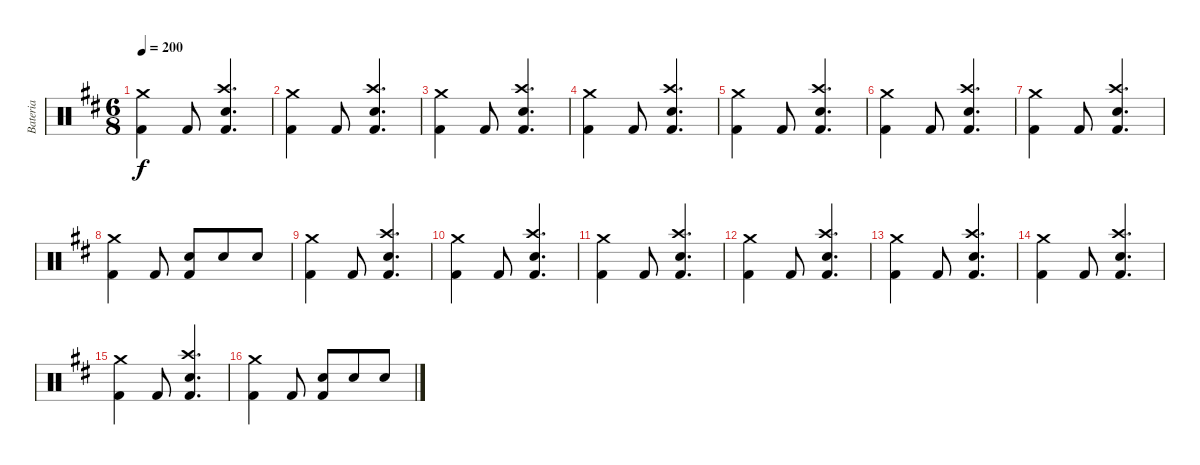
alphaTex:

\track ("Bateria" "Bateria") {instrument percussion}
\staff {score}
\articulation defaults
\ts (6 8)
\tempo 200
\clef neutral
\ks bminor
("Crash medium (hit)" "Kick (hit) 2").4{dy f} "Kick (hit) 2".8 ("Crash high (hit)" "Electric Snare (hit)" "Kick (hit) 2").4{d} |
("Crash medium (hit)" "Kick (hit) 2").4 "Kick (hit) 2".8 ("Crash high (hit)" "Electric Snare (hit)" "Kick (hit) 2").4{d} |
("Crash medium (hit)" "Kick (hit) 2").4 "Kick (hit) 2".8 ("Crash high (hit)" "Electric Snare (hit)" "Kick (hit) 2").4{d} |
("Crash medium (hit)" "Kick (hit) 2").4 "Kick (hit) 2".8 ("Crash high (hit)" "Electric Snare (hit)" "Kick (hit) 2").4{d} |
("Crash medium (hit)" "Kick (hit) 2").4 "Kick (hit) 2".8 ("Crash high (hit)" "Electric Snare (hit)" "Kick (hit) 2").4{d} |
("Crash medium (hit)" "Kick (hit) 2").4 "Kick (hit) 2".8 ("Crash high (hit)" "Electric Snare (hit)" "Kick (hit) 2").4{d} |
("Crash medium (hit)" "Kick (hit) 2").4 "Kick (hit) 2".8 ("Crash high (hit)" "Electric Snare (hit)" "Kick (hit) 2").4{d} |
("Crash medium (hit)" "Kick (hit) 2").4 "Kick (hit) 2".8 ("Electric Snare (hit)" "Kick (hit) 2").8 "Electric Snare (hit)".8 "Electric Snare (hit)".8 |
("Crash medium (hit)" "Kick (hit) 2").4 "Kick (hit) 2".8 ("Crash high (hit)" "Electric Snare (hit)" "Kick (hit) 2").4{d} |
("Crash medium (hit)" "Kick (hit) 2").4 "Kick (hit) 2".8 ("Crash high (hit)" "Electric Snare (hit)" "Kick (hit) 2").4{d} |
("Crash medium (hit)" "Kick (hit) 2").4 "Kick (hit) 2".8 ("Crash high (hit)" "Electric Snare (hit)" "Kick (hit) 2").4{d} |
("Crash medium (hit)" "Kick (hit) 2").4 "Kick (hit) 2".8 ("Crash high (hit)" "Electric Snare (hit)" "Kick (hit) 2").4{d} |
("Crash medium (hit)" "Kick (hit) 2").4 "Kick (hit) 2".8 ("Crash high (hit)" "Electric Snare (hit)" "Kick (hit) 2").4{d} |
("Crash medium (hit)" "Kick (hit) 2").4 "Kick (hit) 2".8 ("Crash high (hit)" "Electric Snare (hit)" "Kick (hit) 2").4{d} |
("Crash medium (hit)" "Kick (hit) 2").4 "Kick (hit) 2".8 ("Crash high (hit)" "Electric Snare (hit)" "Kick (hit) 2").4{d} |
("Crash medium (hit)" "Kick (hit) 2").4 "Kick (hit) 2".8 ("Electric Snare (hit)" "Kick (hit) 2").8 "Electric Snare (hit)".8 "Electric Snare (hit)".8
